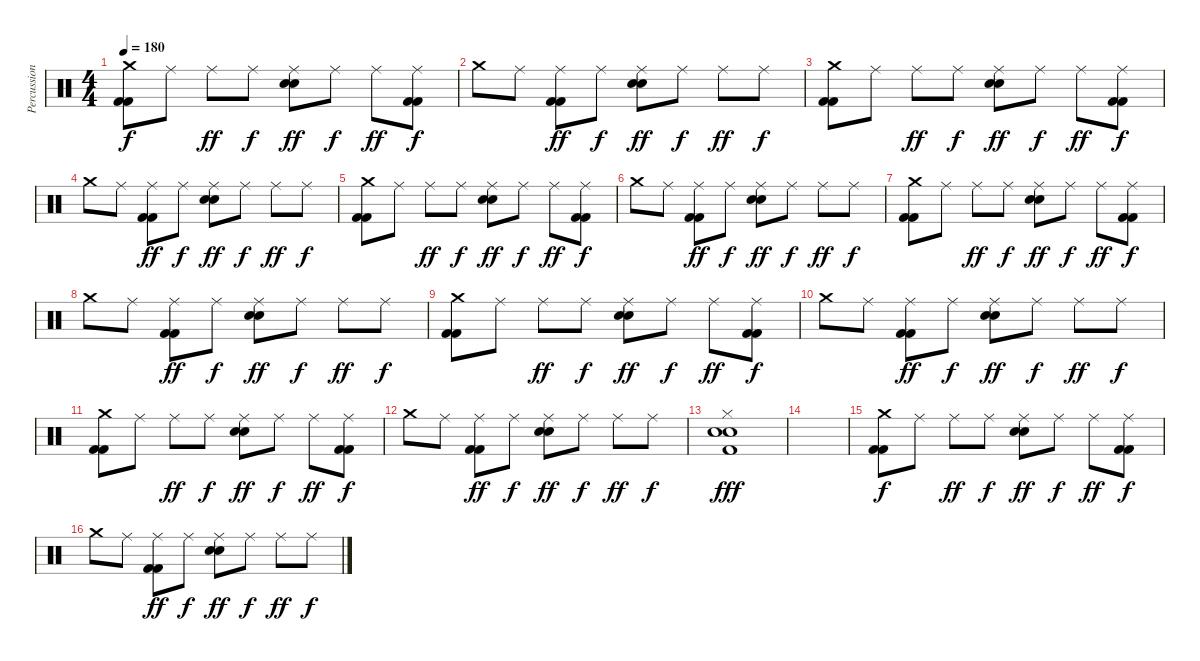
\track ("Percussion" "Percussion") {instrument percussion}
\staff {score}
\articulation defaults
\ts (4 4)
\tempo 180
\clef neutral
\ks c
("Crash medium (hit)" "Kick (hit) 2" "Kick (hit) 2").8{dy f} "Ride (middle)".8 "Ride (middle)".8{dy ff} "Ride (middle)".8{dy f} ("Ride (middle)" "Electric Snare (hit)" "Snare (hit) 2").8{dy ff} "Ride (middle)".8{dy f} "Ride (middle)".8{dy ff} ("Ride (middle)" "Kick (hit) 2" "Kick (hit) 2").8{dy f} |
"Crash medium (hit)".8 "Ride (middle)".8 ("Ride (middle)" "Kick (hit) 2" "Kick (hit) 2").8{dy ff} "Ride (middle)".8{dy f} ("Ride (middle)" "Electric Snare (hit)" "Snare (hit) 2").8{dy ff} "Ride (middle)".8{dy f} "Ride (middle)".8{dy ff} "Ride (middle)".8{dy f} |
("Crash medium (hit)" "Kick (hit) 2" "Kick (hit) 2").8 "Ride (middle)".8 "Ride (middle)".8{dy ff} "Ride (middle)".8{dy f} ("Ride (middle)" "Electric Snare (hit)" "Snare (hit) 2").8{dy ff} "Ride (middle)".8{dy f} "Ride (middle)".8{dy ff} ("Ride (middle)" "Kick (hit) 2" "Kick (hit) 2").8{dy f} |
"Crash medium (hit)".8 "Ride (middle)".8 ("Ride (middle)" "Kick (hit) 2" "Kick (hit) 2").8{dy ff} "Ride (middle)".8{dy f} ("Ride (middle)" "Electric Snare (hit)" "Snare (hit) 2").8{dy ff} "Ride (middle)".8{dy f} "Ride (middle)".8{dy ff} "Ride (middle)".8{dy f} |
("Crash medium (hit)" "Kick (hit) 2" "Kick (hit) 2").8 "Ride (middle)".8 "Ride (middle)".8{dy ff} "Ride (middle)".8{dy f} ("Ride (middle)" "Electric Snare (hit)" "Snare (hit) 2").8{dy ff} "Ride (middle)".8{dy f} "Ride (middle)".8{dy ff} ("Ride (middle)" "Kick (hit) 2" "Kick (hit) 2").8{dy f} |
"Crash medium (hit)".8 "Ride (middle)".8 ("Ride (middle)" "Kick (hit) 2" "Kick (hit) 2").8{dy ff} "Ride (middle)".8{dy f} ("Ride (middle)" "Electric Snare (hit)" "Snare (hit) 2").8{dy ff} "Ride (middle)".8{dy f} "Ride (middle)".8{dy ff} "Ride (middle)".8{dy f} |
("Crash medium (hit)" "Kick (hit) 2" "Kick (hit) 2").8 "Ride (middle)".8 "Ride (middle)".8{dy ff} "Ride (middle)".8{dy f} ("Ride (middle)" "Electric Snare (hit)" "Snare (hit) 2").8{dy ff} "Ride (middle)".8{dy f} "Ride (middle)".8{dy ff} ("Ride (middle)" "Kick (hit) 2" "Kick (hit) 2").8{dy f} |
"Crash medium (hit)".8 "Ride (middle)".8 ("Ride (middle)" "Kick (hit) 2" "Kick (hit) 2").8{dy ff} "Ride (middle)".8{dy f} ("Ride (middle)" "Electric Snare (hit)" "Snare (hit) 2").8{dy ff} "Ride (middle)".8{dy f} "Ride (middle)".8{dy ff} "Ride (middle)".8{dy f} |
("Crash medium (hit)" "Kick (hit) 2" "Kick (hit) 2").8 "Ride (middle)".8 "Ride (middle)".8{dy ff} "Ride (middle)".8{dy f} ("Ride (middle)" "Electric Snare (hit)" "Snare (hit) 2").8{dy ff} "Ride (middle)".8{dy f} "Ride (middle)".8{dy ff} ("Ride (middle)" "Kick (hit) 2" "Kick (hit) 2").8{dy f} |
"Crash medium (hit)".8 "Ride (middle)".8 ("Ride (middle)" "Kick (hit) 2" "Kick (hit) 2").8{dy ff} "Ride (middle)".8{dy f} ("Ride (middle)" "Electric Snare (hit)" "Snare (hit) 2").8{dy ff} "Ride (middle)".8{dy f} "Ride (middle)".8{dy ff} "Ride (middle)".8{dy f} |
("Crash medium (hit)" "Kick (hit) 2" "Kick (hit) 2").8 "Ride (middle)".8 "Ride (middle)".8{dy ff} "Ride (middle)".8{dy f} ("Ride (middle)" "Electric Snare (hit)" "Snare (hit) 2").8{dy ff} "Ride (middle)".8{dy f} "Ride (middle)".8{dy ff} ("Ride (middle)" "Kick (hit) 2" "Kick (hit) 2").8{dy f} |
"Crash medium (hit)".8 "Ride (middle)".8 ("Ride (middle)" "Kick (hit) 2" "Kick (hit) 2").8{dy ff} "Ride (middle)".8{dy f} ("Ride (middle)" "Electric Snare (hit)" "Snare (hit) 2").8{dy ff} "Ride (middle)".8{dy f} "Ride (middle)".8{dy ff} "Ride (middle)".8{dy f} |
("Hi-Hat (closed)" "Electric Snare (hit)" "Snare (hit) 2" "Kick (hit) 2").1{dy fff} |
|
("Crash medium (hit)" "Kick (hit) 2" "Kick (hit) 2").8{dy f} "Ride (middle)".8 "Ride (middle)".8{dy ff} "Ride (middle)".8{dy f} ("Ride (middle)" "Electric Snare (hit)" "Snare (hit) 2").8{dy ff} "Ride (middle)".8{dy f} "Ride (middle)".8{dy ff} ("Ride (middle)" "Kick (hit) 2" "Kick (hit) 2").8{dy f} |
"Crash medium (hit)".8 "Ride (middle)".8 ("Ride (middle)" "Kick (hit) 2" "Kick (hit) 2").8{dy ff} "Ride (middle)".8{dy f} ("Ride (middle)" "Electric Snare (hit)" "Snare (hit) 2").8{dy ff} "Ride (middle)".8{dy f} "Ride (middle)".8{dy ff} "Ride (middle)".8{dy f}
